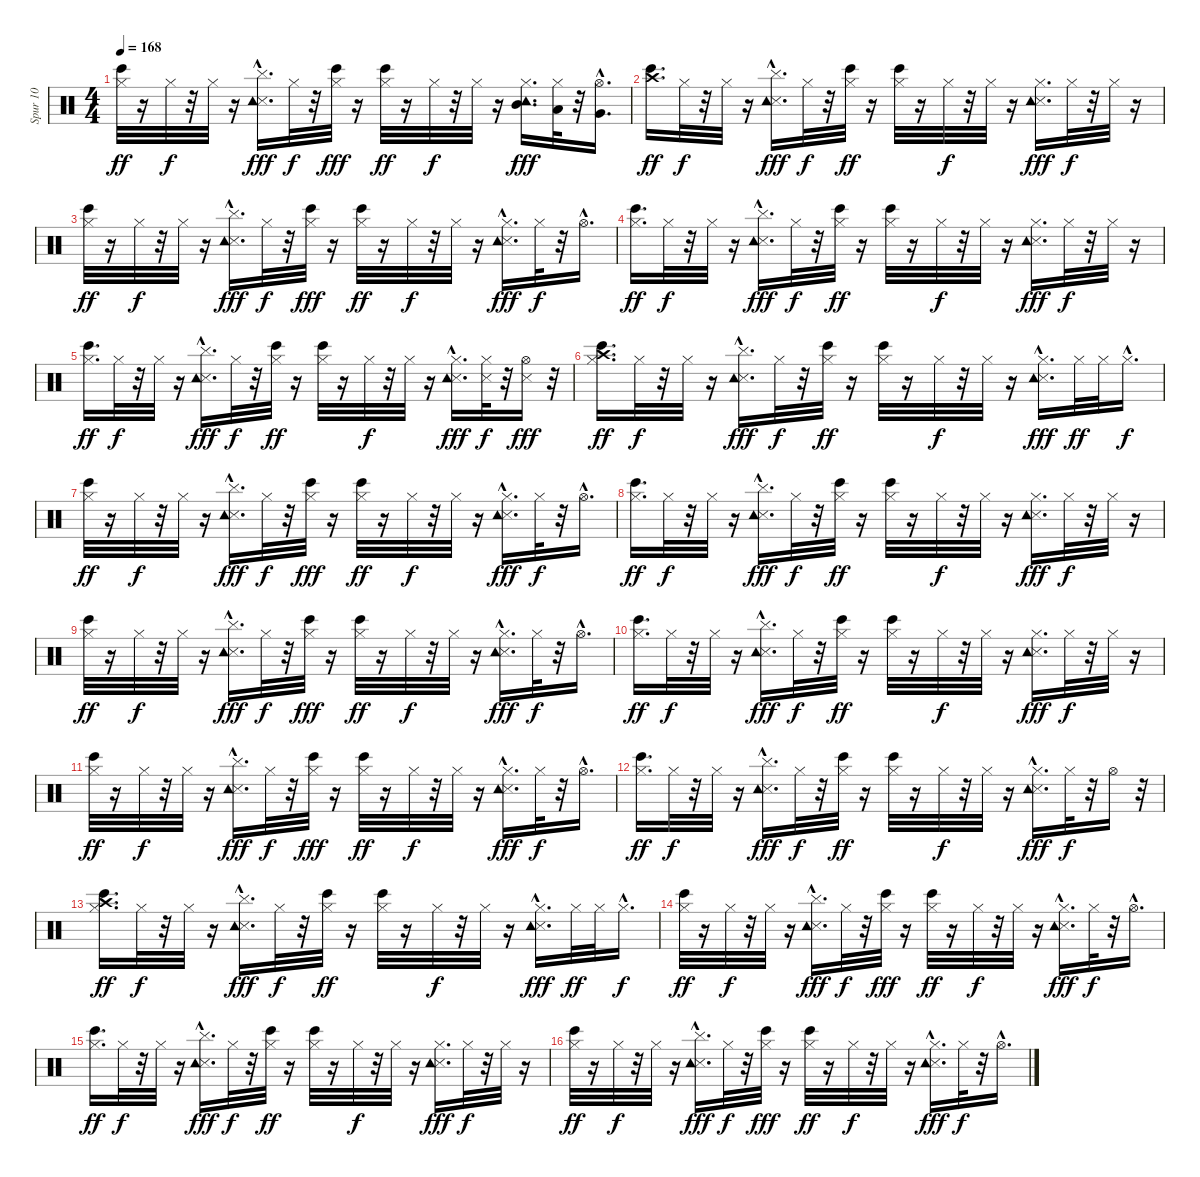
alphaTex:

\track ("Spur 10" "Spur 10") {instrument percussion}
\staff {score}
\articulation defaults
\ts (4 4)
\tempo 168
\clef neutral
\ks c
("Hi-Hat (closed)" "Bongo High (hit)").32{dy ff} r.16 "Hi-Hat (closed)".32{dy f} r.32 "Hi-Hat (closed)".32 r.16 ("Cymbal (hit)"{hac} "Metronome (hit)" "Tambourine (hit)").16{d dy fff} "Hi-Hat (closed)".32{dy f} r.32 ("Hi-Hat (closed)" "Bongo High (hit)").32{dy fff} r.16 ("Hi-Hat (closed)" "Bongo High (hit)").32{dy ff} r.16 "Hi-Hat (closed)".32{dy f} r.32 "Hi-Hat (closed)".32 r.16 ("Hi-Hat (closed)" "Mid Tom (hit)" "Tambourine (hit)").16{d dy fff} ("Hi-Hat (closed)" "Low Tom (hit)").32 r.32 ("Hi-Hat (open)"{hac} "Very Low Tom (hit)").16{d} |
("Crash high (hit)" "Bongo High (hit)").16{d dy ff} "Hi-Hat (closed)".32{dy f} r.32 "Hi-Hat (closed)".32 r.16 ("Cymbal (hit)"{hac} "Metronome (hit)" "Tambourine (hit)").16{d dy fff} "Hi-Hat (closed)".32{dy f} r.32 ("Hi-Hat (closed)" "Bongo High (hit)").32{dy ff} r.16 ("Hi-Hat (closed)" "Bongo High (hit)").32 r.16 "Hi-Hat (closed)".32{dy f} r.32 "Hi-Hat (closed)".32 r.16 ("Hi-Hat (closed)" "Metronome (hit)" "Tambourine (hit)").16{d dy fff} "Hi-Hat (closed)".32{dy f} r.32 "Hi-Hat (closed)".32 r.16 |
("Hi-Hat (closed)" "Bongo High (hit)").32{dy ff} r.16 "Hi-Hat (closed)".32{dy f} r.32 "Hi-Hat (closed)".32 r.16 ("Cymbal (hit)"{hac} "Metronome (hit)" "Tambourine (hit)").16{d dy fff} "Hi-Hat (closed)".32{dy f} r.32 ("Hi-Hat (closed)" "Bongo High (hit)").32{dy fff} r.16 ("Hi-Hat (closed)" "Bongo High (hit)").32{dy ff} r.16 "Hi-Hat (closed)".32{dy f} r.32 "Hi-Hat (closed)".32 r.16 ("Hi-Hat (closed)" "Metronome (hit)"{hac} "Tambourine (hit)").16{d dy fff} "Hi-Hat (closed)".32{dy f} r.32 "Hi-Hat (open)"{hac}.16{d} |
("Hi-Hat (closed)" "Bongo High (hit)").16{d dy ff} "Hi-Hat (closed)".32{dy f} r.32 "Hi-Hat (closed)".32 r.16 ("Cymbal (hit)"{hac} "Metronome (hit)" "Tambourine (hit)").16{d dy fff} "Hi-Hat (closed)".32{dy f} r.32 ("Hi-Hat (closed)" "Bongo High (hit)").32{dy ff} r.16 ("Hi-Hat (closed)" "Bongo High (hit)").32 r.16 "Hi-Hat (closed)".32{dy f} r.32 "Hi-Hat (closed)".32 r.16 ("Hi-Hat (closed)" "Metronome (hit)" "Tambourine (hit)").16{d dy fff} "Hi-Hat (closed)".32{dy f} r.32 "Hi-Hat (closed)".32 r.16 |
("Hi-Hat (closed)" "Bongo High (hit)").16{d dy ff} "Hi-Hat (closed)".32{dy f} r.32 "Hi-Hat (closed)".32 r.16 ("Cymbal (hit)"{hac} "Metronome (hit)" "Tambourine (hit)").16{d dy fff} "Hi-Hat (closed)".32{dy f} r.32 ("Hi-Hat (closed)" "Bongo High (hit)").32{dy ff} r.16 ("Hi-Hat (closed)" "Bongo High (hit)").32 r.16 "Hi-Hat (closed)".32{dy f} r.32 "Hi-Hat (closed)".32 r.16 ("Hi-Hat (closed)" "Metronome (hit)"{hac} "Tambourine (hit)").16{d dy fff} ("Metronome (hit)" "Hi-Hat (closed)").32{dy f} r.32 ("Metronome (hit)" "Hi-Hat (open)").16{dy fff} r.32 |
("Crash high (hit)" "Hi-Hat (closed)" "Bongo High (hit)").16{d dy ff} "Hi-Hat (closed)".32{dy f} r.32 "Hi-Hat (closed)".32 r.16 ("Cymbal (hit)"{hac} "Metronome (hit)" "Tambourine (hit)").16{d dy fff} "Hi-Hat (closed)".32{dy f} r.32 ("Hi-Hat (closed)" "Bongo High (hit)").32{dy ff} r.16 ("Hi-Hat (closed)" "Bongo High (hit)").32 r.16 "Hi-Hat (closed)".32{dy f} r.32 "Hi-Hat (closed)".32 r.16 ("Hi-Hat (closed)"{hac} "Metronome (hit)" "Tambourine (hit)").16{d dy fff} "Hi-Hat (closed)".32{dy ff} "Hi-Hat (closed)".32 "Hi-Hat (closed)"{hac}.16{d dy f} |
("Hi-Hat (closed)" "Bongo High (hit)").32{dy ff} r.16 "Hi-Hat (closed)".32{dy f} r.32 "Hi-Hat (closed)".32 r.16 ("Cymbal (hit)"{hac} "Metronome (hit)" "Tambourine (hit)").16{d dy fff} "Hi-Hat (closed)".32{dy f} r.32 ("Hi-Hat (closed)" "Bongo High (hit)").32{dy fff} r.16 ("Hi-Hat (closed)" "Bongo High (hit)").32{dy ff} r.16 "Hi-Hat (closed)".32{dy f} r.32 "Hi-Hat (closed)".32 r.16 ("Hi-Hat (closed)" "Metronome (hit)"{hac} "Tambourine (hit)").16{d dy fff} "Hi-Hat (closed)".32{dy f} r.32 "Hi-Hat (open)"{hac}.16{d} |
("Hi-Hat (closed)" "Bongo High (hit)").16{d dy ff} "Hi-Hat (closed)".32{dy f} r.32 "Hi-Hat (closed)".32 r.16 ("Cymbal (hit)"{hac} "Metronome (hit)" "Tambourine (hit)").16{d dy fff} "Hi-Hat (closed)".32{dy f} r.32 ("Hi-Hat (closed)" "Bongo High (hit)").32{dy ff} r.16 ("Hi-Hat (closed)" "Bongo High (hit)").32 r.16 "Hi-Hat (closed)".32{dy f} r.32 "Hi-Hat (closed)".32 r.16 ("Hi-Hat (closed)" "Metronome (hit)" "Tambourine (hit)").16{d dy fff} "Hi-Hat (closed)".32{dy f} r.32 "Hi-Hat (closed)".32 r.16 |
("Hi-Hat (closed)" "Bongo High (hit)").32{dy ff} r.16 "Hi-Hat (closed)".32{dy f} r.32 "Hi-Hat (closed)".32 r.16 ("Cymbal (hit)"{hac} "Metronome (hit)" "Tambourine (hit)").16{d dy fff} "Hi-Hat (closed)".32{dy f} r.32 ("Hi-Hat (closed)" "Bongo High (hit)").32{dy fff} r.16 ("Hi-Hat (closed)" "Bongo High (hit)").32{dy ff} r.16 "Hi-Hat (closed)".32{dy f} r.32 "Hi-Hat (closed)".32 r.16 ("Hi-Hat (closed)" "Metronome (hit)"{hac} "Tambourine (hit)").16{d dy fff} "Hi-Hat (closed)".32{dy f} r.32 "Hi-Hat (open)"{hac}.16{d} |
("Hi-Hat (closed)" "Bongo High (hit)").16{d dy ff} "Hi-Hat (closed)".32{dy f} r.32 "Hi-Hat (closed)".32 r.16 ("Cymbal (hit)"{hac} "Metronome (hit)" "Tambourine (hit)").16{d dy fff} "Hi-Hat (closed)".32{dy f} r.32 ("Hi-Hat (closed)" "Bongo High (hit)").32{dy ff} r.16 ("Hi-Hat (closed)" "Bongo High (hit)").32 r.16 "Hi-Hat (closed)".32{dy f} r.32 "Hi-Hat (closed)".32 r.16 ("Hi-Hat (closed)" "Metronome (hit)" "Tambourine (hit)").16{d dy fff} "Hi-Hat (closed)".32{dy f} r.32 "Hi-Hat (closed)".32 r.16 |
("Hi-Hat (closed)" "Bongo High (hit)").32{dy ff} r.16 "Hi-Hat (closed)".32{dy f} r.32 "Hi-Hat (closed)".32 r.16 ("Cymbal (hit)"{hac} "Metronome (hit)" "Tambourine (hit)").16{d dy fff} "Hi-Hat (closed)".32{dy f} r.32 ("Hi-Hat (closed)" "Bongo High (hit)").32{dy fff} r.16 ("Hi-Hat (closed)" "Bongo High (hit)").32{dy ff} r.16 "Hi-Hat (closed)".32{dy f} r.32 "Hi-Hat (closed)".32 r.16 ("Hi-Hat (closed)" "Metronome (hit)"{hac} "Tambourine (hit)").16{d dy fff} "Hi-Hat (closed)".32{dy f} r.32 "Hi-Hat (open)"{hac}.16{d} |
("Hi-Hat (closed)" "Bongo High (hit)").16{d dy ff} "Hi-Hat (closed)".32{dy f} r.32 "Hi-Hat (closed)".32 r.16 ("Cymbal (hit)"{hac} "Metronome (hit)" "Tambourine (hit)").16{d dy fff} "Hi-Hat (closed)".32{dy f} r.32 ("Hi-Hat (closed)" "Bongo High (hit)").32{dy ff} r.16 ("Hi-Hat (closed)" "Bongo High (hit)").32 r.16 "Hi-Hat (closed)".32{dy f} r.32 "Hi-Hat (closed)".32 r.16 ("Hi-Hat (closed)" "Metronome (hit)"{hac} "Tambourine (hit)").16{d dy fff} "Hi-Hat (closed)".32{dy f} r.32 "Hi-Hat (open)".16 r.32 |
("Crash high (hit)" "Hi-Hat (closed)" "Bongo High (hit)").16{d dy ff} "Hi-Hat (closed)".32{dy f} r.32 "Hi-Hat (closed)".32 r.16 ("Cymbal (hit)"{hac} "Metronome (hit)" "Tambourine (hit)").16{d dy fff} "Hi-Hat (closed)".32{dy f} r.32 ("Hi-Hat (closed)" "Bongo High (hit)").32{dy ff} r.16 ("Hi-Hat (closed)" "Bongo High (hit)").32 r.16 "Hi-Hat (closed)".32{dy f} r.32 "Hi-Hat (closed)".32 r.16 ("Hi-Hat (closed)"{hac} "Metronome (hit)" "Tambourine (hit)").16{d dy fff} "Hi-Hat (closed)".32{dy ff} "Hi-Hat (closed)".32 "Hi-Hat (closed)"{hac}.16{d dy f} |
("Hi-Hat (closed)" "Bongo High (hit)").32{dy ff} r.16 "Hi-Hat (closed)".32{dy f} r.32 "Hi-Hat (closed)".32 r.16 ("Cymbal (hit)"{hac} "Metronome (hit)" "Tambourine (hit)").16{d dy fff} "Hi-Hat (closed)".32{dy f} r.32 ("Hi-Hat (closed)" "Bongo High (hit)").32{dy fff} r.16 ("Hi-Hat (closed)" "Bongo High (hit)").32{dy ff} r.16 "Hi-Hat (closed)".32{dy f} r.32 "Hi-Hat (closed)".32 r.16 ("Hi-Hat (closed)" "Metronome (hit)"{hac} "Tambourine (hit)").16{d dy fff} "Hi-Hat (closed)".32{dy f} r.32 "Hi-Hat (open)"{hac}.16{d} |
("Hi-Hat (closed)" "Bongo High (hit)").16{d dy ff} "Hi-Hat (closed)".32{dy f} r.32 "Hi-Hat (closed)".32 r.16 ("Cymbal (hit)"{hac} "Metronome (hit)" "Tambourine (hit)").16{d dy fff} "Hi-Hat (closed)".32{dy f} r.32 ("Hi-Hat (closed)" "Bongo High (hit)").32{dy ff} r.16 ("Hi-Hat (closed)" "Bongo High (hit)").32 r.16 "Hi-Hat (closed)".32{dy f} r.32 "Hi-Hat (closed)".32 r.16 ("Hi-Hat (closed)" "Metronome (hit)" "Tambourine (hit)").16{d dy fff} "Hi-Hat (closed)".32{dy f} r.32 "Hi-Hat (closed)".32 r.16 |
("Hi-Hat (closed)" "Bongo High (hit)").32{dy ff} r.16 "Hi-Hat (closed)".32{dy f} r.32 "Hi-Hat (closed)".32 r.16 ("Cymbal (hit)"{hac} "Metronome (hit)" "Tambourine (hit)").16{d dy fff} "Hi-Hat (closed)".32{dy f} r.32 ("Hi-Hat (closed)" "Bongo High (hit)").32{dy fff} r.16 ("Hi-Hat (closed)" "Bongo High (hit)").32{dy ff} r.16 "Hi-Hat (closed)".32{dy f} r.32 "Hi-Hat (closed)".32 r.16 ("Hi-Hat (closed)" "Metronome (hit)"{hac} "Tambourine (hit)").16{d dy fff} "Hi-Hat (closed)".32{dy f} r.32 "Hi-Hat (open)"{hac}.16{d}
